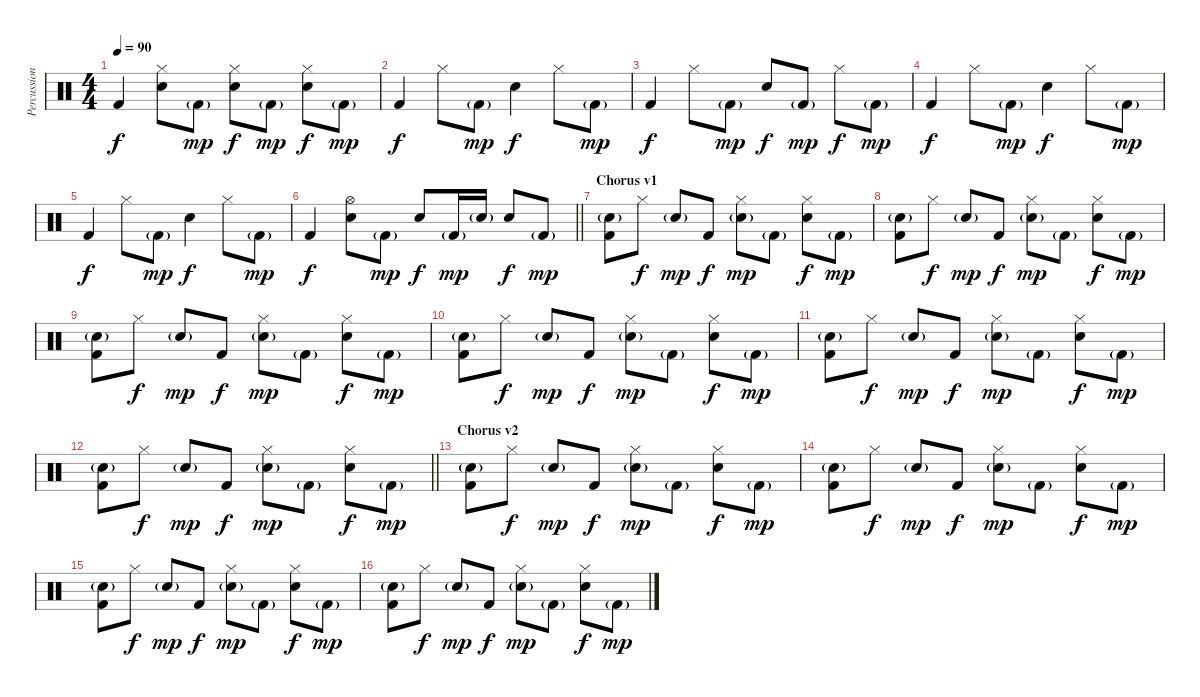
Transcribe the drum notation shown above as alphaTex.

\track ("Percussion" "Percussion") {instrument percussion}
\staff {score}
\articulation defaults
\ts (4 4)
\tempo 90
\clef neutral
\ks c "Kick (hit) 2".4{dy f}
("Hi-Hat (closed)" "Snare (hit) 2").8 "Kick (hit) 2"{g}.8{dy mp} ("Hi-Hat (closed)" "Snare (hit) 2").8{dy f} "Kick (hit) 2"{g}.8{dy mp} ("Hi-Hat (closed)" "Snare (hit) 2").8{dy f} "Kick (hit) 2"{g}.8{dy mp} |
"Kick (hit) 2".4{dy f} "Hi-Hat (closed)".8 "Kick (hit) 2"{g}.8{dy mp} "Snare (hit) 2".4{dy f} "Hi-Hat (closed)".8 "Kick (hit) 2"{g}.8{dy mp} |
"Kick (hit) 2".4{dy f} "Hi-Hat (closed)".8 "Kick (hit) 2"{g}.8{dy mp} "Snare (hit) 2".8{dy f} "Kick (hit) 2"{g}.8{dy mp} "Hi-Hat (closed)".8{dy f} "Kick (hit) 2"{g}.8{dy mp} |
"Kick (hit) 2".4{dy f} "Hi-Hat (closed)".8 "Kick (hit) 2"{g}.8{dy mp} "Snare (hit) 2".4{dy f} "Hi-Hat (closed)".8 "Kick (hit) 2"{g}.8{dy mp} |
"Kick (hit) 2".4{dy f} "Hi-Hat (closed)".8 "Kick (hit) 2"{g}.8{dy mp} "Snare (hit) 2".4{dy f} "Hi-Hat (closed)".8 "Kick (hit) 2"{g}.8{dy mp} |
\barLineRight lightlight "Kick (hit) 2".4{dy f}
("Hi-Hat (open)" "Snare (hit) 2").8 "Kick (hit) 2"{g}.8{dy mp} "Snare (hit) 2".8{dy f} "Kick (hit) 2"{g}.16{dy mp} "Snare (hit) 2"{g}.16 "Snare (hit) 2".8{dy f} "Kick (hit) 2"{g}.8{dy mp} |
\section ("" "Chorus v1")
("Snare (hit) 2"{g} "Kick (hit) 2").8 "Hi-Hat (closed)".8{dy f} "Snare (hit) 2"{g}.8{dy mp} "Kick (hit) 2".8{dy f} ("Hi-Hat (closed)" "Snare (hit) 2"{g}).8{dy mp} "Kick (hit) 2"{g}.8 ("Hi-Hat (closed)" "Snare (hit) 2").8{dy f} "Kick (hit) 2"{g}.8{dy mp} |
("Snare (hit) 2"{g} "Kick (hit) 2").8 "Hi-Hat (closed)".8{dy f} "Snare (hit) 2"{g}.8{dy mp} "Kick (hit) 2".8{dy f} ("Hi-Hat (closed)" "Snare (hit) 2"{g}).8{dy mp} "Kick (hit) 2"{g}.8 ("Hi-Hat (closed)" "Snare (hit) 2").8{dy f} "Kick (hit) 2"{g}.8{dy mp} |
("Snare (hit) 2"{g} "Kick (hit) 2").8 "Hi-Hat (closed)".8{dy f} "Snare (hit) 2"{g}.8{dy mp} "Kick (hit) 2".8{dy f} ("Hi-Hat (closed)" "Snare (hit) 2"{g}).8{dy mp} "Kick (hit) 2"{g}.8 ("Hi-Hat (closed)" "Snare (hit) 2").8{dy f} "Kick (hit) 2"{g}.8{dy mp} |
("Snare (hit) 2"{g} "Kick (hit) 2").8 "Hi-Hat (closed)".8{dy f} "Snare (hit) 2"{g}.8{dy mp} "Kick (hit) 2".8{dy f} ("Hi-Hat (closed)" "Snare (hit) 2"{g}).8{dy mp} "Kick (hit) 2"{g}.8 ("Hi-Hat (closed)" "Snare (hit) 2").8{dy f} "Kick (hit) 2"{g}.8{dy mp} |
("Snare (hit) 2"{g} "Kick (hit) 2").8 "Hi-Hat (closed)".8{dy f} "Snare (hit) 2"{g}.8{dy mp} "Kick (hit) 2".8{dy f} ("Hi-Hat (closed)" "Snare (hit) 2"{g}).8{dy mp} "Kick (hit) 2"{g}.8 ("Hi-Hat (closed)" "Snare (hit) 2").8{dy f} "Kick (hit) 2"{g}.8{dy mp} |
\barLineRight lightlight
("Snare (hit) 2"{g} "Kick (hit) 2").8 "Hi-Hat (closed)".8{dy f} "Snare (hit) 2"{g}.8{dy mp} "Kick (hit) 2".8{dy f} ("Hi-Hat (closed)" "Snare (hit) 2"{g}).8{dy mp} "Kick (hit) 2"{g}.8 ("Hi-Hat (closed)" "Snare (hit) 2").8{dy f} "Kick (hit) 2"{g}.8{dy mp} |
\section ("" "Chorus v2")
("Snare (hit) 2"{g} "Kick (hit) 2").8 "Hi-Hat (closed)".8{dy f} "Snare (hit) 2"{g}.8{dy mp} "Kick (hit) 2".8{dy f} ("Hi-Hat (closed)" "Snare (hit) 2"{g}).8{dy mp} "Kick (hit) 2"{g}.8 ("Hi-Hat (closed)" "Snare (hit) 2").8{dy f} "Kick (hit) 2"{g}.8{dy mp} |
("Snare (hit) 2"{g} "Kick (hit) 2").8 "Hi-Hat (closed)".8{dy f} "Snare (hit) 2"{g}.8{dy mp} "Kick (hit) 2".8{dy f} ("Hi-Hat (closed)" "Snare (hit) 2"{g}).8{dy mp} "Kick (hit) 2"{g}.8 ("Hi-Hat (closed)" "Snare (hit) 2").8{dy f} "Kick (hit) 2"{g}.8{dy mp} |
("Snare (hit) 2"{g} "Kick (hit) 2").8 "Hi-Hat (closed)".8{dy f} "Snare (hit) 2"{g}.8{dy mp} "Kick (hit) 2".8{dy f} ("Hi-Hat (closed)" "Snare (hit) 2"{g}).8{dy mp} "Kick (hit) 2"{g}.8 ("Hi-Hat (closed)" "Snare (hit) 2").8{dy f} "Kick (hit) 2"{g}.8{dy mp} |
("Snare (hit) 2"{g} "Kick (hit) 2").8 "Hi-Hat (closed)".8{dy f} "Snare (hit) 2"{g}.8{dy mp} "Kick (hit) 2".8{dy f} ("Hi-Hat (closed)" "Snare (hit) 2"{g}).8{dy mp} "Kick (hit) 2"{g}.8 ("Hi-Hat (closed)" "Snare (hit) 2").8{dy f} "Kick (hit) 2"{g}.8{dy mp}
